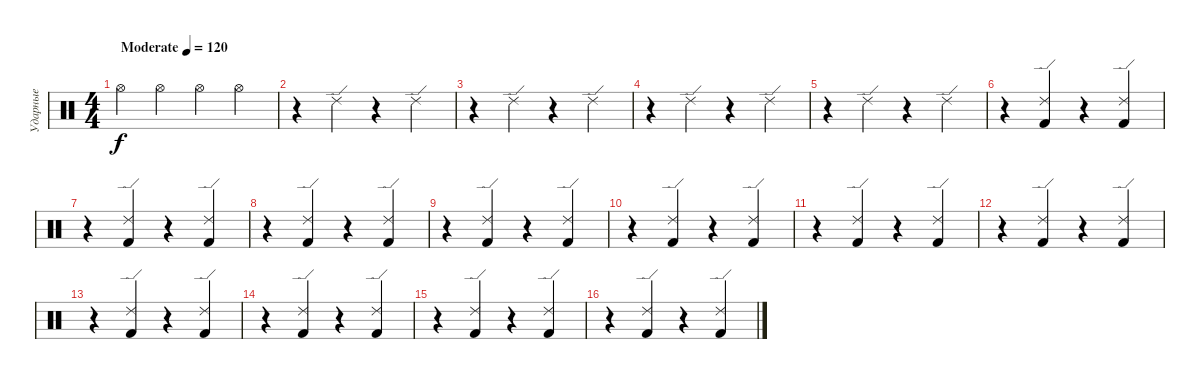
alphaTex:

\track ("Ударные" "Ударные") {instrument percussion}
\staff {score}
\articulation defaults
\ts (4 4)
\tempo (120 "Moderate")
\clef neutral
\ks c "Hi-Hat (open)".4{dy f} "Hi-Hat (open)".4 "Hi-Hat (open)".4 "Hi-Hat (open)".4
|
r.4 "Ride (edge) 2".4 r.4 "Ride (edge) 2".4 |
r.4 "Ride (edge) 2".4 r.4 "Ride (edge) 2".4 |
r.4 "Ride (edge) 2".4 r.4 "Ride (edge) 2".4 |
r.4 "Ride (edge) 2".4 r.4 "Ride (edge) 2".4 |
r.4 ("Ride (edge) 2" "Kick (hit) 2").4 r.4 ("Ride (edge) 2" "Kick (hit) 2").4 |
r.4 ("Ride (edge) 2" "Kick (hit) 2").4 r.4 ("Ride (edge) 2" "Kick (hit) 2").4 |
r.4 ("Ride (edge) 2" "Kick (hit) 2").4 r.4 ("Ride (edge) 2" "Kick (hit) 2").4 |
r.4 ("Ride (edge) 2" "Kick (hit) 2").4 r.4 ("Ride (edge) 2" "Kick (hit) 2").4 |
r.4 ("Ride (edge) 2" "Kick (hit) 2").4 r.4 ("Ride (edge) 2" "Kick (hit) 2").4 |
r.4 ("Ride (edge) 2" "Kick (hit) 2").4 r.4 ("Ride (edge) 2" "Kick (hit) 2").4 |
r.4 ("Ride (edge) 2" "Kick (hit) 2").4 r.4 ("Ride (edge) 2" "Kick (hit) 2").4 |
r.4 ("Ride (edge) 2" "Kick (hit) 2").4 r.4 ("Ride (edge) 2" "Kick (hit) 2").4 |
r.4 ("Ride (edge) 2" "Kick (hit) 2").4 r.4 ("Ride (edge) 2" "Kick (hit) 2").4 |
r.4 ("Ride (edge) 2" "Kick (hit) 2").4 r.4 ("Ride (edge) 2" "Kick (hit) 2").4 |
r.4 ("Ride (edge) 2" "Kick (hit) 2").4 r.4 ("Ride (edge) 2" "Kick (hit) 2").4
